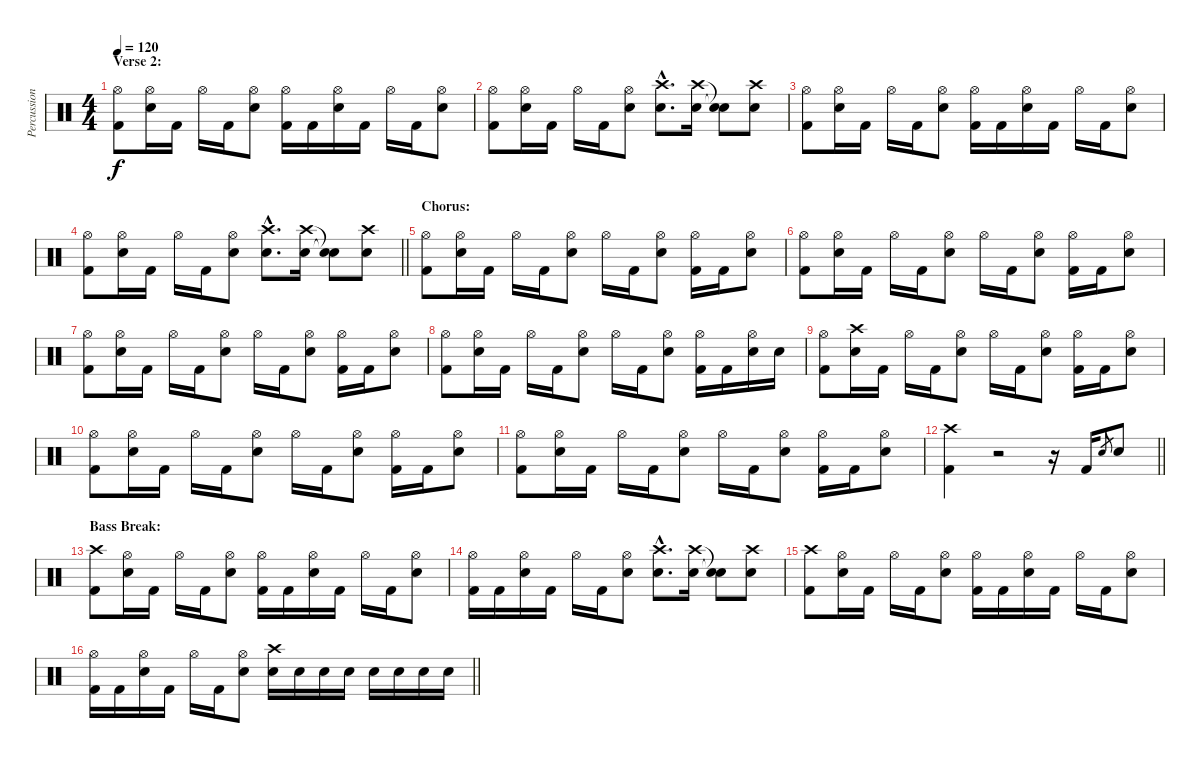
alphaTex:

\track ("Percussion" "Percussion") {instrument percussion}
\staff {score}
\articulation defaults
\ts (4 4)
\section ("" "Verse 2:")
\tempo 120
\clef neutral
\ks c
("Hi-Hat (open)" "Kick (hit) 2").8{dy f} ("Hi-Hat (open)" "Electric Snare (hit)").16 "Kick (hit) 2".16 "Hi-Hat (open)".16 "Kick (hit) 2".16 ("Hi-Hat (open)" "Electric Snare (hit)").8 ("Hi-Hat (open)" "Kick (hit) 2").16 "Kick (hit) 2".16 ("Hi-Hat (open)" "Electric Snare (hit)").16 "Kick (hit) 2".16 "Hi-Hat (open)".16 "Kick (hit) 2".16 ("Hi-Hat (open)" "Electric Snare (hit)").8 |
("Hi-Hat (open)" "Kick (hit) 2").8 ("Hi-Hat (open)" "Electric Snare (hit)").16 "Kick (hit) 2".16 "Hi-Hat (open)".16 "Kick (hit) 2".16 ("Hi-Hat (open)" "Electric Snare (hit)").8 ("Crash high (hit)"{hac} "Electric Snare (hit)"{hac}).8{d} ("Crash high (hit)" "Electric Snare (hit)").16 ("Snare (hit)"{t} "Snare (hit)"{t}).8 ("Crash high (hit)" "Electric Snare (hit)").8 |
("Hi-Hat (open)" "Kick (hit) 2").8 ("Hi-Hat (open)" "Electric Snare (hit)").16 "Kick (hit) 2".16 "Hi-Hat (open)".16 "Kick (hit) 2".16 ("Hi-Hat (open)" "Electric Snare (hit)").8 ("Hi-Hat (open)" "Kick (hit) 2").16 "Kick (hit) 2".16 ("Hi-Hat (open)" "Electric Snare (hit)").16 "Kick (hit) 2".16 "Hi-Hat (open)".16 "Kick (hit) 2".16 ("Hi-Hat (open)" "Electric Snare (hit)").8 |
\barLineRight lightlight
("Hi-Hat (open)" "Kick (hit) 2").8 ("Hi-Hat (open)" "Electric Snare (hit)").16 "Kick (hit) 2".16 "Hi-Hat (open)".16 "Kick (hit) 2".16 ("Hi-Hat (open)" "Electric Snare (hit)").8 ("Crash high (hit)"{hac} "Electric Snare (hit)"{hac}).8{d} ("Crash high (hit)" "Electric Snare (hit)").16 ("Snare (hit)"{t} "Snare (hit)"{t}).8 ("Crash high (hit)" "Electric Snare (hit)").8 |
\section ("" "Chorus:")
("Hi-Hat (open)" "Kick (hit) 2").8 ("Hi-Hat (open)" "Electric Snare (hit)").16 "Kick (hit) 2".16 "Hi-Hat (open)".16 "Kick (hit) 2".16 ("Hi-Hat (open)" "Electric Snare (hit)").8 "Hi-Hat (open)".16 "Kick (hit) 2".16 ("Hi-Hat (open)" "Electric Snare (hit)").8 ("Hi-Hat (open)" "Kick (hit) 2").16 "Kick (hit) 2".16 ("Hi-Hat (open)" "Electric Snare (hit)").8 |
("Hi-Hat (open)" "Kick (hit) 2").8 ("Hi-Hat (open)" "Electric Snare (hit)").16 "Kick (hit) 2".16 "Hi-Hat (open)".16 "Kick (hit) 2".16 ("Hi-Hat (open)" "Electric Snare (hit)").8 "Hi-Hat (open)".16 "Kick (hit) 2".16 ("Hi-Hat (open)" "Electric Snare (hit)").8 ("Hi-Hat (open)" "Kick (hit) 2").16 "Kick (hit) 2".16 ("Hi-Hat (open)" "Electric Snare (hit)").8 |
("Hi-Hat (open)" "Kick (hit) 2").8 ("Hi-Hat (open)" "Electric Snare (hit)").16 "Kick (hit) 2".16 "Hi-Hat (open)".16 "Kick (hit) 2".16 ("Hi-Hat (open)" "Electric Snare (hit)").8 "Hi-Hat (open)".16 "Kick (hit) 2".16 ("Hi-Hat (open)" "Electric Snare (hit)").8 ("Hi-Hat (open)" "Kick (hit) 2").16 "Kick (hit) 2".16 ("Hi-Hat (open)" "Electric Snare (hit)").8 |
("Hi-Hat (open)" "Kick (hit) 2").8 ("Hi-Hat (open)" "Electric Snare (hit)").16 "Kick (hit) 2".16 "Hi-Hat (open)".16 "Kick (hit) 2".16 ("Hi-Hat (open)" "Electric Snare (hit)").8 "Hi-Hat (open)".16 "Kick (hit) 2".16 ("Hi-Hat (open)" "Electric Snare (hit)").8 ("Hi-Hat (open)" "Kick (hit) 2").16 "Kick (hit) 2".16 ("Hi-Hat (open)" "Electric Snare (hit)").16 "Electric Snare (hit)".16 |
("Hi-Hat (open)" "Kick (hit) 2").8 ("Crash high (hit)" "Electric Snare (hit)").16 "Kick (hit) 2".16 "Hi-Hat (open)".16 "Kick (hit) 2".16 ("Hi-Hat (open)" "Electric Snare (hit)").8 "Hi-Hat (open)".16 "Kick (hit) 2".16 ("Hi-Hat (open)" "Electric Snare (hit)").8 ("Hi-Hat (open)" "Kick (hit) 2").16 "Kick (hit) 2".16 ("Hi-Hat (open)" "Electric Snare (hit)").8 |
("Hi-Hat (open)" "Kick (hit) 2").8 ("Hi-Hat (open)" "Electric Snare (hit)").16 "Kick (hit) 2".16 "Hi-Hat (open)".16 "Kick (hit) 2".16 ("Hi-Hat (open)" "Electric Snare (hit)").8 "Hi-Hat (open)".16 "Kick (hit) 2".16 ("Hi-Hat (open)" "Electric Snare (hit)").8 ("Hi-Hat (open)" "Kick (hit) 2").16 "Kick (hit) 2".16 ("Hi-Hat (open)" "Electric Snare (hit)").8 |
("Hi-Hat (open)" "Kick (hit) 2").8 ("Hi-Hat (open)" "Electric Snare (hit)").16 "Kick (hit) 2".16 "Hi-Hat (open)".16 "Kick (hit) 2".16 ("Hi-Hat (open)" "Electric Snare (hit)").8 "Hi-Hat (open)".16 "Kick (hit) 2".16 ("Hi-Hat (open)" "Electric Snare (hit)").8 ("Hi-Hat (open)" "Kick (hit) 2").16 "Kick (hit) 2".16 ("Hi-Hat (open)" "Electric Snare (hit)").8 |
\barLineRight lightlight
("Crash high (hit)" "Kick (hit) 2").4 r.2 r.16 "Kick (hit) 2".16 "Electric Snare (hit)".8{gr} "Electric Snare (hit)".8 |
\section ("" "Bass Break:")
("Crash high (hit)" "Kick (hit) 2").8 ("Hi-Hat (open)" "Electric Snare (hit)").16 "Kick (hit) 2".16 "Hi-Hat (open)".16 "Kick (hit) 2".16 ("Hi-Hat (open)" "Electric Snare (hit)").8 ("Hi-Hat (open)" "Kick (hit) 2").16 "Kick (hit) 2".16 ("Hi-Hat (open)" "Electric Snare (hit)").16 "Kick (hit) 2".16 "Hi-Hat (open)".16 "Kick (hit) 2".16 ("Hi-Hat (open)" "Electric Snare (hit)").8 |
("Hi-Hat (open)" "Kick (hit) 2").16 "Kick (hit) 2".16 ("Hi-Hat (open)" "Electric Snare (hit)").16 "Kick (hit) 2".16 "Hi-Hat (open)".16 "Kick (hit) 2".16 ("Hi-Hat (open)" "Electric Snare (hit)").8 ("Crash high (hit)"{hac} "Electric Snare (hit)"{hac}).8{d} ("Crash high (hit)" "Electric Snare (hit)").16 ("Snare (hit)"{t} "Snare (hit)"{t}).8 ("Crash high (hit)" "Electric Snare (hit)").8 |
("Crash high (hit)" "Kick (hit) 2").8 ("Hi-Hat (open)" "Electric Snare (hit)").16 "Kick (hit) 2".16 "Hi-Hat (open)".16 "Kick (hit) 2".16 ("Hi-Hat (open)" "Electric Snare (hit)").8 ("Hi-Hat (open)" "Kick (hit) 2").16 "Kick (hit) 2".16 ("Hi-Hat (open)" "Electric Snare (hit)").16 "Kick (hit) 2".16 "Hi-Hat (open)".16 "Kick (hit) 2".16 ("Hi-Hat (open)" "Electric Snare (hit)").8 |
\barLineRight lightlight
("Hi-Hat (open)" "Kick (hit) 2").16 "Kick (hit) 2".16 ("Hi-Hat (open)" "Electric Snare (hit)").16 "Kick (hit) 2".16 "Hi-Hat (open)".16 "Kick (hit) 2".16 ("Hi-Hat (open)" "Electric Snare (hit)").8 ("Crash high (hit)" "Electric Snare (hit)").16 "Electric Snare (hit)".16 "Electric Snare (hit)".16 "Electric Snare (hit)".16 "Electric Snare (hit)".16 "Electric Snare (hit)".16 "Electric Snare (hit)".16 "Electric Snare (hit)".16
